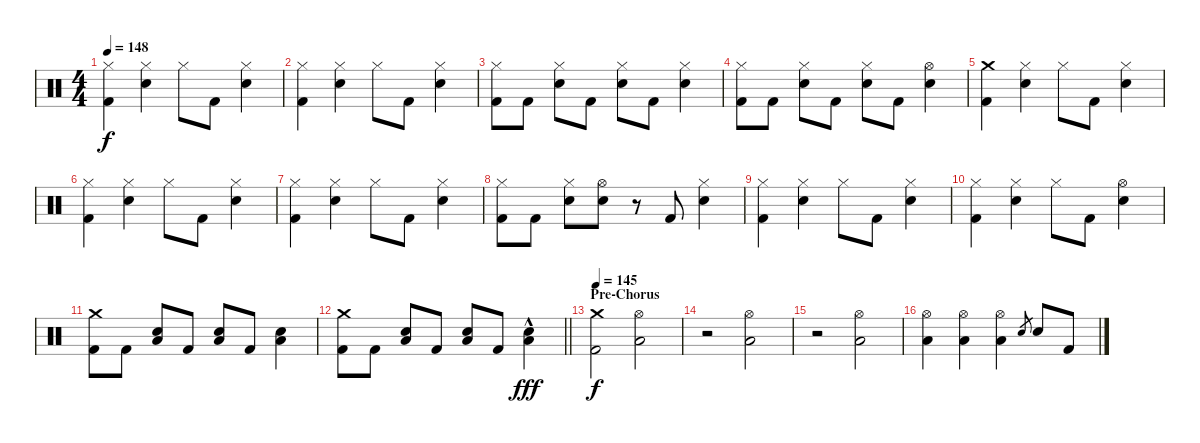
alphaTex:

\track "" {instrument percussion}
\staff {score}
\articulation defaults
\ts (4 4)
\tempo 148
\clef neutral
\ks c
("Hi-Hat (closed)" "Kick (hit) 2").4{dy f} ("Hi-Hat (closed)" "Electric Snare (hit)").4 "Hi-Hat (closed)".8 "Kick (hit) 2".8 ("Hi-Hat (closed)" "Electric Snare (hit)").4 |
("Hi-Hat (closed)" "Kick (hit) 2").4 ("Hi-Hat (closed)" "Electric Snare (hit)").4 "Hi-Hat (closed)".8 "Kick (hit) 2".8 ("Hi-Hat (closed)" "Electric Snare (hit)").4 |
("Hi-Hat (closed)" "Kick (hit) 2").8 "Kick (hit) 2".8 ("Hi-Hat (closed)" "Electric Snare (hit)").8 "Kick (hit) 2".8 ("Hi-Hat (closed)" "Electric Snare (hit)").8 "Kick (hit) 2".8 ("Hi-Hat (closed)" "Electric Snare (hit)").4 |
("Hi-Hat (closed)" "Kick (hit) 2").8 "Kick (hit) 2".8 ("Hi-Hat (closed)" "Electric Snare (hit)").8 "Kick (hit) 2".8 ("Hi-Hat (closed)" "Electric Snare (hit)").8 "Kick (hit) 2".8 ("Hi-Hat (open)" "Electric Snare (hit)").4 |
("Crash medium (hit)" "Kick (hit) 2").4 ("Hi-Hat (closed)" "Electric Snare (hit)").4 "Hi-Hat (closed)".8 "Kick (hit) 2".8 ("Hi-Hat (closed)" "Electric Snare (hit)").4 |
("Hi-Hat (closed)" "Kick (hit) 2").4 ("Hi-Hat (closed)" "Electric Snare (hit)").4 "Hi-Hat (closed)".8 "Kick (hit) 2".8 ("Hi-Hat (closed)" "Electric Snare (hit)").4 |
("Hi-Hat (closed)" "Kick (hit) 2").4 ("Hi-Hat (closed)" "Electric Snare (hit)").4 "Hi-Hat (closed)".8 "Kick (hit) 2".8 ("Hi-Hat (closed)" "Electric Snare (hit)").4 |
("Hi-Hat (closed)" "Kick (hit) 2").8 "Kick (hit) 2".8 ("Hi-Hat (closed)" "Electric Snare (hit)").8 ("Hi-Hat (open)" "Electric Snare (hit)").8 r.8 "Kick (hit) 2".8 ("Hi-Hat (closed)" "Electric Snare (hit)").4 |
("Hi-Hat (closed)" "Kick (hit) 2").4 ("Hi-Hat (closed)" "Electric Snare (hit)").4 "Hi-Hat (closed)".8 "Kick (hit) 2".8 ("Hi-Hat (closed)" "Electric Snare (hit)").4 |
("Hi-Hat (closed)" "Kick (hit) 2").4 ("Hi-Hat (closed)" "Electric Snare (hit)").4 "Hi-Hat (closed)".8 "Kick (hit) 2".8 ("Hi-Hat (open)" "Electric Snare (hit)").4 |
("Crash medium (hit)" "Kick (hit) 2").8 "Kick (hit) 2".8 ("Low Floor Tom (hit)" "Electric Snare (hit)").8 "Kick (hit) 2".8 ("Low Floor Tom (hit)" "Electric Snare (hit)").8 "Kick (hit) 2".8 ("Low Floor Tom (hit)" "Electric Snare (hit)").4 |
\barLineRight lightlight
("Crash medium (hit)" "Kick (hit) 2").8 "Kick (hit) 2".8 ("Low Floor Tom (hit)" "Electric Snare (hit)").8 "Kick (hit) 2".8 ("Low Floor Tom (hit)" "Electric Snare (hit)").8 "Kick (hit) 2".8 ("Low Floor Tom (hit)" "Electric Snare (hit)"{hac}).4{dy fff} |
\section ("" "Pre-Chorus")
\tempo 145
("Crash medium (hit)" "Kick (hit) 2").2{dy f} ("Hi-Hat (open)" "Low Floor Tom (hit)").2 |
r.2 ("Hi-Hat (open)" "Low Floor Tom (hit)").2 |
r.2 ("Hi-Hat (open)" "Low Floor Tom (hit)").2 |
("Hi-Hat (open)" "Low Floor Tom (hit)").4 ("Hi-Hat (open)" "Low Floor Tom (hit)").4 ("Hi-Hat (open)" "Low Floor Tom (hit)").4 "Electric Snare (hit)".8{gr} "Electric Snare (hit)".8 "Kick (hit) 2".8
